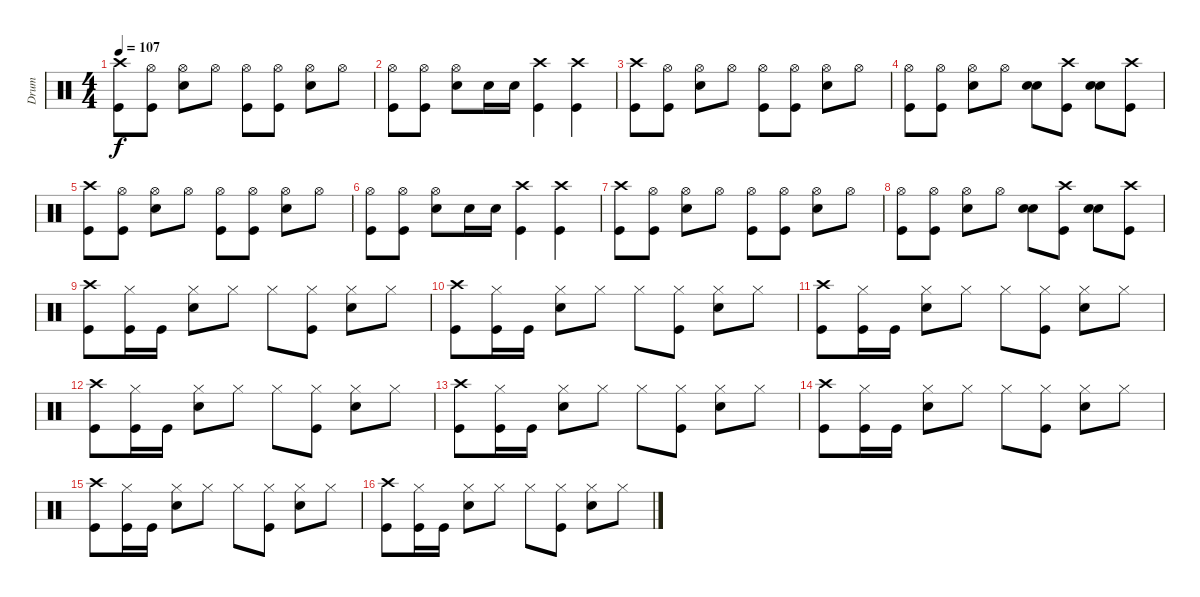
\track ("Drum" "Drum") {instrument percussion}
\staff {score}
\articulation defaults
\ts (4 4)
\tempo 107
\clef neutral
\ks c
("Crash high (hit)" "Kick (hit)").8{dy f} ("Hi-Hat (open)" "Kick (hit)").8 ("Hi-Hat (open)" "Snare (hit) 2").8 "Hi-Hat (open)".8 ("Hi-Hat (open)" "Kick (hit)").8 ("Hi-Hat (open)" "Kick (hit)").8 ("Hi-Hat (open)" "Snare (hit) 2").8 "Hi-Hat (open)".8 |
("Hi-Hat (open)" "Kick (hit)").8 ("Hi-Hat (open)" "Kick (hit)").8 ("Hi-Hat (open)" "Snare (hit) 2").8 "Snare (hit) 2".16 "Snare (hit) 2".16 ("Crash high (hit)" "Kick (hit)").4 ("Crash high (hit)" "Kick (hit)").4 |
("Crash high (hit)" "Kick (hit)").8 ("Hi-Hat (open)" "Kick (hit)").8 ("Hi-Hat (open)" "Snare (hit) 2").8 "Hi-Hat (open)".8 ("Hi-Hat (open)" "Kick (hit)").8 ("Hi-Hat (open)" "Kick (hit)").8 ("Hi-Hat (open)" "Snare (hit) 2").8 "Hi-Hat (open)".8 |
("Hi-Hat (open)" "Kick (hit)").8 ("Hi-Hat (open)" "Kick (hit)").8 ("Hi-Hat (open)" "Snare (hit) 2").8 "Hi-Hat (open)".8 ("Snare (hit) 2" "Snare (hit) 2").8 ("Crash high (hit)" "Kick (hit)").8 ("Snare (hit) 2" "Snare (hit) 2").8 ("Crash high (hit)" "Kick (hit)").8 |
("Crash high (hit)" "Kick (hit)").8 ("Hi-Hat (open)" "Kick (hit)").8 ("Hi-Hat (open)" "Snare (hit) 2").8 "Hi-Hat (open)".8 ("Hi-Hat (open)" "Kick (hit)").8 ("Hi-Hat (open)" "Kick (hit)").8 ("Hi-Hat (open)" "Snare (hit) 2").8 "Hi-Hat (open)".8 |
("Hi-Hat (open)" "Kick (hit)").8 ("Hi-Hat (open)" "Kick (hit)").8 ("Hi-Hat (open)" "Snare (hit) 2").8 "Snare (hit) 2".16 "Snare (hit) 2".16 ("Crash high (hit)" "Kick (hit)").4 ("Crash high (hit)" "Kick (hit)").4 |
("Crash high (hit)" "Kick (hit)").8 ("Hi-Hat (open)" "Kick (hit)").8 ("Hi-Hat (open)" "Snare (hit) 2").8 "Hi-Hat (open)".8 ("Hi-Hat (open)" "Kick (hit)").8 ("Hi-Hat (open)" "Kick (hit)").8 ("Hi-Hat (open)" "Snare (hit) 2").8 "Hi-Hat (open)".8 |
("Hi-Hat (open)" "Kick (hit)").8 ("Hi-Hat (open)" "Kick (hit)").8 ("Hi-Hat (open)" "Snare (hit) 2").8 "Hi-Hat (open)".8 ("Snare (hit) 2" "Snare (hit) 2").8 ("Crash high (hit)" "Kick (hit)").8 ("Snare (hit) 2" "Snare (hit) 2").8 ("Crash high (hit)" "Kick (hit)").8 |
("Kick (hit)" "Crash high (hit)").8 ("Kick (hit)" "Hi-Hat (closed)").16 "Kick (hit)".16 ("Hi-Hat (closed)" "Snare (hit) 2").8 "Hi-Hat (closed)".8 "Hi-Hat (closed)".8 ("Hi-Hat (closed)" "Kick (hit)").8 ("Hi-Hat (closed)" "Snare (hit) 2").8 "Hi-Hat (closed)".8 |
("Kick (hit)" "Crash high (hit)").8 ("Kick (hit)" "Hi-Hat (closed)").16 "Kick (hit)".16 ("Hi-Hat (closed)" "Snare (hit) 2").8 "Hi-Hat (closed)".8 "Hi-Hat (closed)".8 ("Hi-Hat (closed)" "Kick (hit)").8 ("Hi-Hat (closed)" "Snare (hit) 2").8 "Hi-Hat (closed)".8 |
("Kick (hit)" "Crash high (hit)").8 ("Kick (hit)" "Hi-Hat (closed)").16 "Kick (hit)".16 ("Hi-Hat (closed)" "Snare (hit) 2").8 "Hi-Hat (closed)".8 "Hi-Hat (closed)".8 ("Hi-Hat (closed)" "Kick (hit)").8 ("Hi-Hat (closed)" "Snare (hit) 2").8 "Hi-Hat (closed)".8 |
("Kick (hit)" "Crash high (hit)").8 ("Kick (hit)" "Hi-Hat (closed)").16 "Kick (hit)".16 ("Hi-Hat (closed)" "Snare (hit) 2").8 "Hi-Hat (closed)".8 "Hi-Hat (closed)".8 ("Hi-Hat (closed)" "Kick (hit)").8 ("Hi-Hat (closed)" "Snare (hit) 2").8 "Hi-Hat (closed)".8 |
("Kick (hit)" "Crash high (hit)").8 ("Kick (hit)" "Hi-Hat (closed)").16 "Kick (hit)".16 ("Hi-Hat (closed)" "Snare (hit) 2").8 "Hi-Hat (closed)".8 "Hi-Hat (closed)".8 ("Hi-Hat (closed)" "Kick (hit)").8 ("Hi-Hat (closed)" "Snare (hit) 2").8 "Hi-Hat (closed)".8 |
("Kick (hit)" "Crash high (hit)").8 ("Kick (hit)" "Hi-Hat (closed)").16 "Kick (hit)".16 ("Hi-Hat (closed)" "Snare (hit) 2").8 "Hi-Hat (closed)".8 "Hi-Hat (closed)".8 ("Hi-Hat (closed)" "Kick (hit)").8 ("Hi-Hat (closed)" "Snare (hit) 2").8 "Hi-Hat (closed)".8 |
("Kick (hit)" "Crash high (hit)").8 ("Kick (hit)" "Hi-Hat (closed)").16 "Kick (hit)".16 ("Hi-Hat (closed)" "Snare (hit) 2").8 "Hi-Hat (closed)".8 "Hi-Hat (closed)".8 ("Hi-Hat (closed)" "Kick (hit)").8 ("Hi-Hat (closed)" "Snare (hit) 2").8 "Hi-Hat (closed)".8 |
("Kick (hit)" "Crash high (hit)").8 ("Kick (hit)" "Hi-Hat (closed)").16 "Kick (hit)".16 ("Hi-Hat (closed)" "Snare (hit) 2").8 "Hi-Hat (closed)".8 "Hi-Hat (closed)".8 ("Hi-Hat (closed)" "Kick (hit)").8 ("Hi-Hat (closed)" "Snare (hit) 2").8 "Hi-Hat (closed)".8
